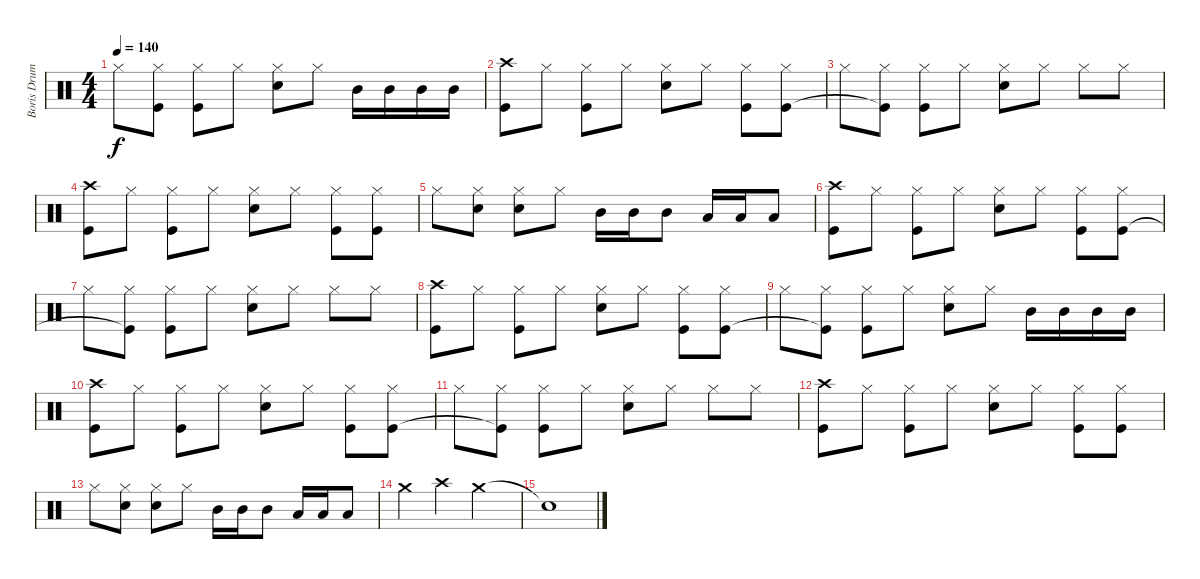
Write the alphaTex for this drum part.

\track ("Boris Drums" "Boris Drum") {instrument percussion}
\staff {score}
\articulation defaults
\ts (4 4)
\tempo 140
\clef neutral
\ks c "Hi-Hat (closed)".8{dy f}
("Hi-Hat (closed)" "Kick (hit)"{t}).8 ("Hi-Hat (closed)" "Kick (hit)").8 "Hi-Hat (closed)".8 ("Hi-Hat (closed)" "Electric Snare (hit)").8 "Hi-Hat (closed)".8 "Mid Tom (hit)".16 "Mid Tom (hit)".16 "Mid Tom (hit)".16 "Mid Tom (hit)".16 |
("Crash high (hit)" "Kick (hit)").8 "Hi-Hat (closed)".8 ("Hi-Hat (closed)" "Kick (hit)").8 "Hi-Hat (closed)".8 ("Hi-Hat (closed)" "Electric Snare (hit)").8 "Hi-Hat (closed)".8 ("Hi-Hat (closed)" "Kick (hit)").8 ("Hi-Hat (closed)" "Kick (hit)").8 |
"Hi-Hat (closed)".8 ("Hi-Hat (closed)" "Kick (hit)"{t}).8 ("Hi-Hat (closed)" "Kick (hit)").8 "Hi-Hat (closed)".8 ("Hi-Hat (closed)" "Electric Snare (hit)").8 "Hi-Hat (closed)".8 "Hi-Hat (closed)".8 "Hi-Hat (closed)".8 |
("Crash high (hit)" "Kick (hit)").8 "Hi-Hat (closed)".8 ("Hi-Hat (closed)" "Kick (hit)").8 "Hi-Hat (closed)".8 ("Hi-Hat (closed)" "Electric Snare (hit)").8 "Hi-Hat (closed)".8 ("Hi-Hat (closed)" "Kick (hit)").8 ("Hi-Hat (closed)" "Kick (hit)").8 |
"Hi-Hat (closed)".8 ("Hi-Hat (closed)" "Electric Snare (hit)").8 ("Hi-Hat (closed)" "Electric Snare (hit)").8 "Hi-Hat (closed)".8 "Mid Tom (hit)".16 "Mid Tom (hit)".16 "Mid Tom (hit)".8 "Low Tom (hit)".16 "Low Tom (hit)".16 "Low Tom (hit)".8 |
("Crash high (hit)" "Kick (hit)").8 "Hi-Hat (closed)".8 ("Hi-Hat (closed)" "Kick (hit)").8 "Hi-Hat (closed)".8 ("Hi-Hat (closed)" "Electric Snare (hit)").8 "Hi-Hat (closed)".8 ("Hi-Hat (closed)" "Kick (hit)").8 ("Hi-Hat (closed)" "Kick (hit)").8 |
"Hi-Hat (closed)".8 ("Hi-Hat (closed)" "Kick (hit)"{t}).8 ("Hi-Hat (closed)" "Kick (hit)").8 "Hi-Hat (closed)".8 ("Hi-Hat (closed)" "Electric Snare (hit)").8 "Hi-Hat (closed)".8 "Hi-Hat (closed)".8 "Hi-Hat (closed)".8 |
("Crash high (hit)" "Kick (hit)").8 "Hi-Hat (closed)".8 ("Hi-Hat (closed)" "Kick (hit)").8 "Hi-Hat (closed)".8 ("Hi-Hat (closed)" "Electric Snare (hit)").8 "Hi-Hat (closed)".8 ("Hi-Hat (closed)" "Kick (hit)").8 ("Hi-Hat (closed)" "Kick (hit)").8 |
"Hi-Hat (closed)".8 ("Hi-Hat (closed)" "Kick (hit)"{t}).8 ("Hi-Hat (closed)" "Kick (hit)").8 "Hi-Hat (closed)".8 ("Hi-Hat (closed)" "Electric Snare (hit)").8 "Hi-Hat (closed)".8 "Mid Tom (hit)".16 "Mid Tom (hit)".16 "Mid Tom (hit)".16 "Mid Tom (hit)".16 |
("Crash high (hit)" "Kick (hit)").8 "Hi-Hat (closed)".8 ("Hi-Hat (closed)" "Kick (hit)").8 "Hi-Hat (closed)".8 ("Hi-Hat (closed)" "Electric Snare (hit)").8 "Hi-Hat (closed)".8 ("Hi-Hat (closed)" "Kick (hit)").8 ("Hi-Hat (closed)" "Kick (hit)").8 |
"Hi-Hat (closed)".8 ("Hi-Hat (closed)" "Kick (hit)"{t}).8 ("Hi-Hat (closed)" "Kick (hit)").8 "Hi-Hat (closed)".8 ("Hi-Hat (closed)" "Electric Snare (hit)").8 "Hi-Hat (closed)".8 "Hi-Hat (closed)".8 "Hi-Hat (closed)".8 |
("Crash high (hit)" "Kick (hit)").8 "Hi-Hat (closed)".8 ("Hi-Hat (closed)" "Kick (hit)").8 "Hi-Hat (closed)".8 ("Hi-Hat (closed)" "Electric Snare (hit)").8 "Hi-Hat (closed)".8 ("Hi-Hat (closed)" "Kick (hit)").8 ("Hi-Hat (closed)" "Kick (hit)").8 |
"Hi-Hat (closed)".8 ("Hi-Hat (closed)" "Electric Snare (hit)").8 ("Hi-Hat (closed)" "Electric Snare (hit)").8 "Hi-Hat (closed)".8 "Mid Tom (hit)".16 "Mid Tom (hit)".16 "Mid Tom (hit)".8 "Low Tom (hit)".16 "Low Tom (hit)".16 "Low Tom (hit)".8 |
"Crash medium (hit)".4 "Crash high (hit)".4 "Crash medium (hit)".2 |
"Snare (hit)"{t}.1
